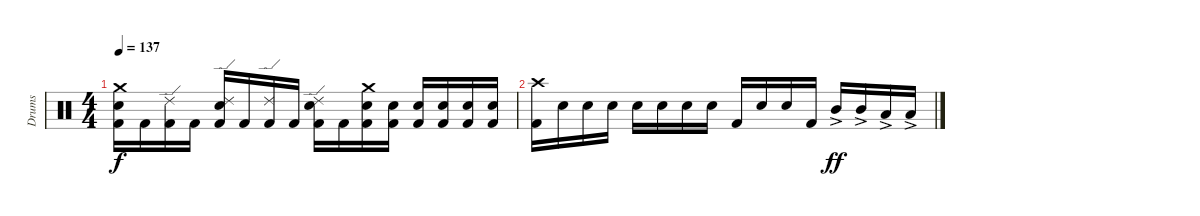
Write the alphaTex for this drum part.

\track ("Drums" "Drums") {instrument percussion}
\staff {score}
\articulation defaults
\ts (4 4)
\tempo 137
\clef neutral
\ks c
("Kick (hit) 2" "Snare (hit) 2" "Crash medium (hit)").16{dy f} "Kick (hit) 2".16 ("Kick (hit) 2" "Ride (edge) 2").16 "Kick (hit) 2".16 ("Kick (hit) 2" "Snare (hit) 2" "Ride (edge) 2").16 "Kick (hit) 2".16 ("Kick (hit) 2" "Ride (edge) 2").16 "Kick (hit) 2".16 ("Kick (hit) 2" "Snare (hit) 2" "Ride (edge) 2").16 "Kick (hit) 2".16 ("Kick (hit) 2" "Snare (hit) 2" "Crash medium (hit)").16 ("Kick (hit) 2" "Snare (hit) 2").16 ("Kick (hit) 2" "Snare (hit) 2").16 ("Kick (hit) 2" "Snare (hit) 2").16 ("Kick (hit) 2" "Snare (hit) 2").16 ("Kick (hit) 2" "Snare (hit) 2").16 |
("Kick (hit) 2" "Crash high (hit)").16 "Snare (hit) 2".16 "Snare (hit) 2".16 "Snare (hit) 2".16 "Snare (hit) 2".16 "Snare (hit) 2".16 "Snare (hit) 2".16 "Snare (hit) 2".16 "Kick (hit) 2".16 "Snare (hit) 2".16 "Snare (hit) 2".16 "Kick (hit) 2".16 "Mid Tom (hit)"{ac}.16{dy ff} "Mid Tom (hit)"{ac}.16 "Low Tom (hit)"{ac}.16 "Low Tom (hit)"{ac}.16
